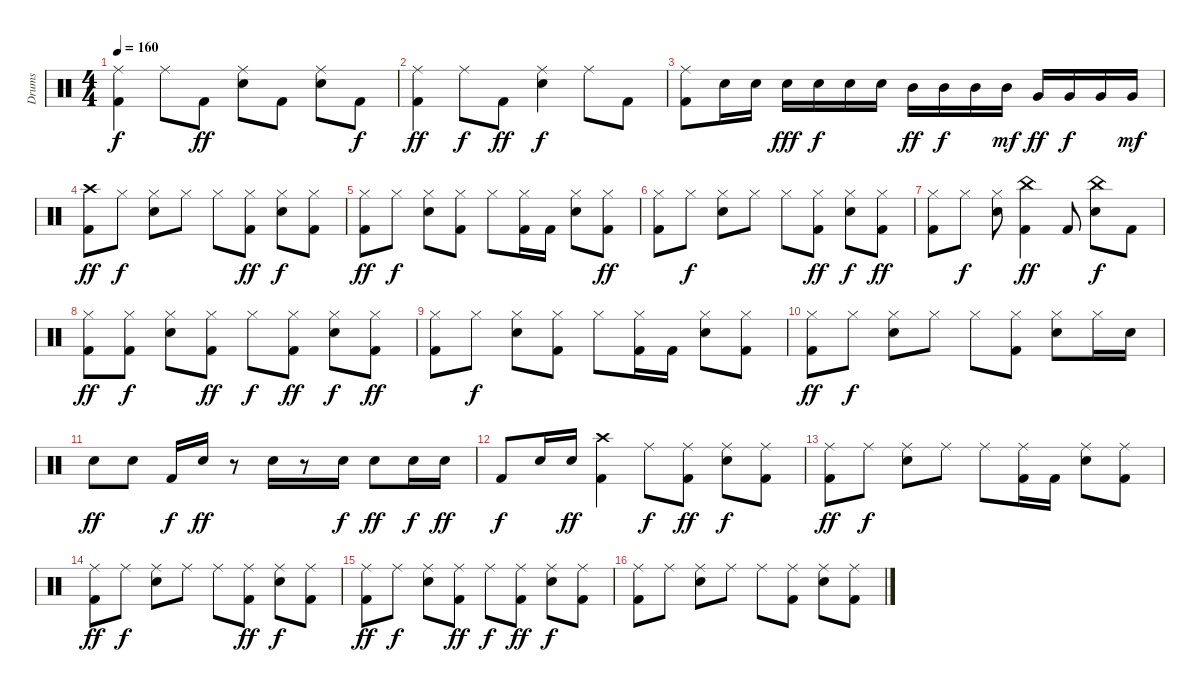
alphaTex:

\track ("Drums" "Drums") {instrument percussion}
\staff {score}
\articulation defaults
\ts (4 4)
\tempo 160
\clef neutral
\ks c
("Ride (middle)" "Kick (hit) 2").4{dy f} "Ride (middle)".8 "Kick (hit) 2".8{dy ff} ("Ride (middle)" "Snare (hit) 2").8 "Kick (hit) 2".8 ("Ride (middle)" "Snare (hit) 2").8 "Kick (hit) 2".8{dy f} |
("Ride (middle)" "Kick (hit) 2").4{dy ff} "Ride (middle)".8{dy f} "Kick (hit) 2".8{dy ff} ("Ride (middle)" "Snare (hit) 2").4{dy f} "Ride (middle)".8 "Kick (hit) 2".8 |
("Ride (middle)" "Kick (hit) 2").8 "Snare (hit) 2".16 "Snare (hit) 2".16 "Snare (hit) 2".16{dy fff} "Snare (hit) 2".16{dy f} "Snare (hit) 2".16 "Snare (hit) 2".16 "Mid Tom (hit)".16{dy ff} "Mid Tom (hit)".16{dy f} "Mid Tom (hit)".16 "Mid Tom (hit)".16{dy mf} "Very Low Tom (hit)".16{dy ff} "Very Low Tom (hit)".16{dy f} "Very Low Tom (hit)".16 "Very Low Tom (hit)".16{dy mf} |
("Crash high (hit)" "Kick (hit) 2").8{dy ff} "Hi-Hat (closed)".8{dy f} ("Snare (hit) 2" "Hi-Hat (closed)").8 "Hi-Hat (closed)".8 "Hi-Hat (closed)".8 ("Kick (hit) 2" "Hi-Hat (closed)").8{dy ff} ("Snare (hit) 2" "Hi-Hat (closed)").8{dy f} ("Kick (hit) 2" "Hi-Hat (closed)").8 |
("Hi-Hat (closed)" "Kick (hit) 2").8{dy ff} "Hi-Hat (closed)".8{dy f} ("Hi-Hat (closed)" "Snare (hit) 2").8 ("Hi-Hat (closed)" "Kick (hit) 2").8 "Hi-Hat (closed)".8 ("Kick (hit) 2" "Hi-Hat (closed)").16 "Kick (hit) 2".16 ("Hi-Hat (closed)" "Snare (hit) 2").8 ("Kick (hit) 2" "Hi-Hat (closed)").8{dy ff} |
("Kick (hit) 2" "Hi-Hat (closed)").8 "Hi-Hat (closed)".8{dy f} ("Hi-Hat (closed)" "Snare (hit) 2").8 "Hi-Hat (closed)".8 "Hi-Hat (closed)".8 ("Kick (hit) 2" "Hi-Hat (closed)").8{dy ff} ("Hi-Hat (closed)" "Snare (hit) 2").8{dy f} ("Kick (hit) 2" "Hi-Hat (closed)").8{dy ff} |
("Hi-Hat (closed)" "Kick (hit) 2").8 "Hi-Hat (closed)".8{dy f} ("Hi-Hat (closed)" "Snare (hit) 2").8 ("China (hit)" "Kick (hit) 2").4{dy ff} "Kick (hit) 2".8 ("China (hit)" "Snare (hit) 2").8{dy f} "Kick (hit) 2".8 |
("Hi-Hat (closed)" "Kick (hit) 2").8{dy ff} ("Hi-Hat (closed)" "Kick (hit) 2").8{dy f} ("Hi-Hat (closed)" "Snare (hit) 2").8 ("Hi-Hat (closed)" "Kick (hit) 2").8{dy ff} "Hi-Hat (closed)".8{dy f} ("Hi-Hat (closed)" "Kick (hit) 2").8{dy ff} ("Hi-Hat (closed)" "Snare (hit) 2").8{dy f} ("Hi-Hat (closed)" "Kick (hit) 2").8{dy ff} |
("Hi-Hat (closed)" "Kick (hit) 2").8 "Hi-Hat (closed)".8{dy f} ("Hi-Hat (closed)" "Snare (hit) 2").8 ("Hi-Hat (closed)" "Kick (hit) 2").8 "Hi-Hat (closed)".8 ("Hi-Hat (closed)" "Kick (hit) 2").16 "Kick (hit) 2".16 ("Hi-Hat (closed)" "Snare (hit) 2").8 ("Kick (hit) 2" "Hi-Hat (closed)").8 |
("Hi-Hat (closed)" "Kick (hit) 2").8{dy ff} "Hi-Hat (closed)".8{dy f} ("Hi-Hat (closed)" "Snare (hit) 2").8 "Hi-Hat (closed)".8 "Hi-Hat (closed)".8 ("Hi-Hat (closed)" "Kick (hit) 2").8 ("Hi-Hat (closed)" "Snare (hit) 2").8 "Hi-Hat (closed)".16 "Snare (hit) 2".16 |
"Snare (hit) 2".8{dy ff} "Snare (hit) 2".8 "Kick (hit) 2".16{dy f} "Snare (hit) 2".16{dy ff} r.8 "Snare (hit) 2".16 r.8 "Snare (hit) 2".16{dy f} "Snare (hit) 2".8{dy ff} "Snare (hit) 2".16{dy f} "Snare (hit) 2".16{dy ff} |
"Kick (hit) 2".8{dy f} "Snare (hit) 2".16 "Snare (hit) 2".16{dy ff} ("Crash high (hit)" "Kick (hit) 2").4 "Ride (middle)".8{dy f} ("Ride (middle)" "Kick (hit) 2").8{dy ff} ("Ride (middle)" "Snare (hit) 2").8{dy f} ("Ride (middle)" "Kick (hit) 2").8 |
("Ride (middle)" "Kick (hit) 2").8{dy ff} "Ride (middle)".8{dy f} ("Ride (middle)" "Snare (hit) 2").8 "Ride (middle)".8 "Ride (middle)".8 ("Ride (middle)" "Kick (hit) 2").16 "Kick (hit) 2".16 ("Ride (middle)" "Snare (hit) 2").8 ("Ride (middle)" "Kick (hit) 2").8 |
("Ride (middle)" "Kick (hit) 2").8{dy ff} "Ride (middle)".8{dy f} ("Ride (middle)" "Snare (hit) 2").8 "Ride (middle)".8 "Ride (middle)".8 ("Ride (middle)" "Kick (hit) 2").8{dy ff} ("Ride (middle)" "Snare (hit) 2").8{dy f} ("Ride (middle)" "Kick (hit) 2").8 |
("Ride (middle)" "Kick (hit) 2").8{dy ff} "Ride (middle)".8{dy f} ("Ride (middle)" "Snare (hit) 2").8 ("Ride (middle)" "Kick (hit) 2").8{dy ff} "Ride (middle)".8{dy f} ("Ride (middle)" "Kick (hit) 2").8{dy ff} ("Ride (middle)" "Snare (hit) 2").8{dy f} ("Ride (middle)" "Kick (hit) 2").8 |
("Ride (middle)" "Kick (hit) 2").8 "Ride (middle)".8 ("Ride (middle)" "Snare (hit) 2").8 "Ride (middle)".8 "Ride (middle)".8 ("Ride (middle)" "Kick (hit) 2").8 ("Ride (middle)" "Snare (hit) 2").8 ("Ride (middle)" "Kick (hit) 2").8
